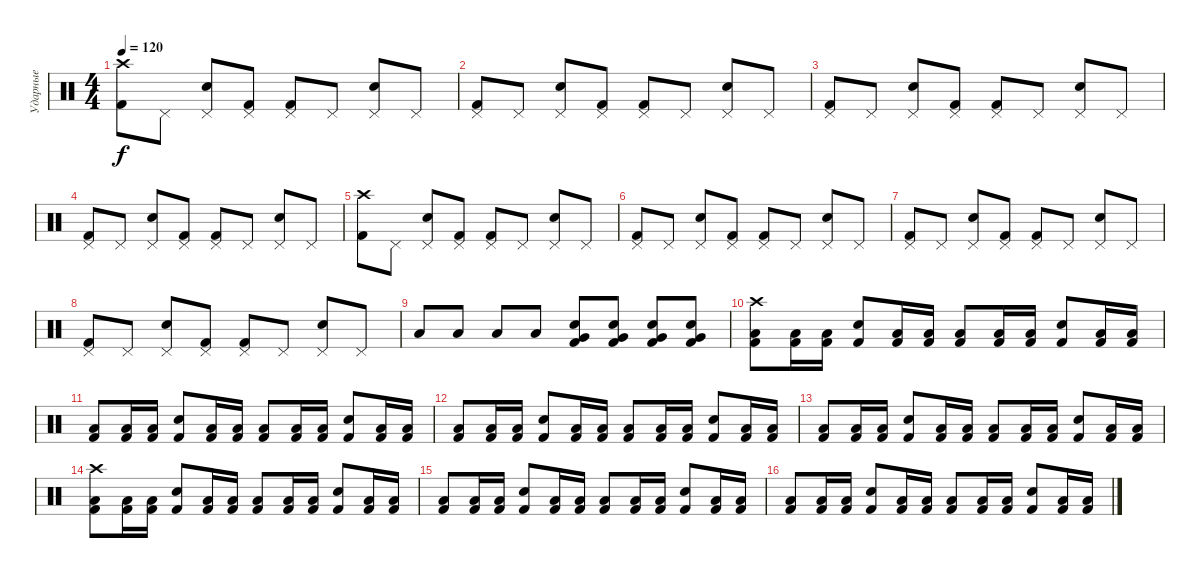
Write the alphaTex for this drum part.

\track ("Ударные" "Ударные") {instrument percussion}
\staff {score}
\articulation defaults
\ts (4 4)
\tempo 120
\clef neutral
\ks c
("Crash high (hit)" "Kick (hit) 2").8{dy f} "Pedal Hi-Hat (hit)".8 ("Pedal Hi-Hat (hit)" "Snare (hit) 2").8 ("Pedal Hi-Hat (hit)" "Kick (hit) 2").8 ("Pedal Hi-Hat (hit)" "Kick (hit) 2").8 "Pedal Hi-Hat (hit)".8 ("Pedal Hi-Hat (hit)" "Snare (hit) 2").8 "Pedal Hi-Hat (hit)".8 |
("Pedal Hi-Hat (hit)" "Kick (hit) 2").8 "Pedal Hi-Hat (hit)".8 ("Pedal Hi-Hat (hit)" "Snare (hit) 2").8 ("Pedal Hi-Hat (hit)" "Kick (hit) 2").8 ("Pedal Hi-Hat (hit)" "Kick (hit) 2").8 "Pedal Hi-Hat (hit)".8 ("Pedal Hi-Hat (hit)" "Snare (hit) 2").8 "Pedal Hi-Hat (hit)".8 |
("Pedal Hi-Hat (hit)" "Kick (hit) 2").8 "Pedal Hi-Hat (hit)".8 ("Pedal Hi-Hat (hit)" "Snare (hit) 2").8 ("Pedal Hi-Hat (hit)" "Kick (hit) 2").8 ("Pedal Hi-Hat (hit)" "Kick (hit) 2").8 "Pedal Hi-Hat (hit)".8 ("Pedal Hi-Hat (hit)" "Snare (hit) 2").8 "Pedal Hi-Hat (hit)".8 |
("Pedal Hi-Hat (hit)" "Kick (hit) 2").8 "Pedal Hi-Hat (hit)".8 ("Pedal Hi-Hat (hit)" "Snare (hit) 2").8 ("Pedal Hi-Hat (hit)" "Kick (hit) 2").8 ("Pedal Hi-Hat (hit)" "Kick (hit) 2").8 "Pedal Hi-Hat (hit)".8 ("Pedal Hi-Hat (hit)" "Snare (hit) 2").8 "Pedal Hi-Hat (hit)".8 |
("Crash high (hit)" "Kick (hit) 2").8 "Pedal Hi-Hat (hit)".8 ("Pedal Hi-Hat (hit)" "Snare (hit) 2").8 ("Pedal Hi-Hat (hit)" "Kick (hit) 2").8 ("Pedal Hi-Hat (hit)" "Kick (hit) 2").8 "Pedal Hi-Hat (hit)".8 ("Pedal Hi-Hat (hit)" "Snare (hit) 2").8 "Pedal Hi-Hat (hit)".8 |
("Pedal Hi-Hat (hit)" "Kick (hit) 2").8 "Pedal Hi-Hat (hit)".8 ("Pedal Hi-Hat (hit)" "Snare (hit) 2").8 ("Pedal Hi-Hat (hit)" "Kick (hit) 2").8 ("Pedal Hi-Hat (hit)" "Kick (hit) 2").8 "Pedal Hi-Hat (hit)".8 ("Pedal Hi-Hat (hit)" "Snare (hit) 2").8 "Pedal Hi-Hat (hit)".8 |
("Pedal Hi-Hat (hit)" "Kick (hit) 2").8 "Pedal Hi-Hat (hit)".8 ("Pedal Hi-Hat (hit)" "Snare (hit) 2").8 ("Pedal Hi-Hat (hit)" "Kick (hit) 2").8 ("Pedal Hi-Hat (hit)" "Kick (hit) 2").8 "Pedal Hi-Hat (hit)".8 ("Pedal Hi-Hat (hit)" "Snare (hit) 2").8 "Pedal Hi-Hat (hit)".8 |
("Pedal Hi-Hat (hit)" "Kick (hit) 2").8 "Pedal Hi-Hat (hit)".8 ("Pedal Hi-Hat (hit)" "Snare (hit) 2").8 ("Pedal Hi-Hat (hit)" "Kick (hit) 2").8 ("Pedal Hi-Hat (hit)" "Kick (hit) 2").8 "Pedal Hi-Hat (hit)".8 ("Pedal Hi-Hat (hit)" "Snare (hit) 2").8 "Pedal Hi-Hat (hit)".8 |
"Low Tom (hit)".8 "Low Tom (hit)".8 "Low Tom (hit)".8 "Low Tom (hit)".8 ("Very Low Tom (hit)" "Kick (hit) 2" "Snare (hit) 2").8 ("Very Low Tom (hit)" "Kick (hit) 2" "Snare (hit) 2").8 ("Very Low Tom (hit)" "Kick (hit) 2" "Snare (hit) 2").8 ("Very Low Tom (hit)" "Kick (hit) 2" "Snare (hit) 2").8 |
("Kick (hit) 2" "Crash high (hit)" "Low Tom (hit)").8 ("Kick (hit) 2" "Low Tom (hit)").16 ("Kick (hit) 2" "Low Tom (hit)").16 ("Kick (hit) 2" "Snare (hit) 2").8 ("Kick (hit) 2" "Low Tom (hit)").16 ("Kick (hit) 2" "Low Tom (hit)").16 ("Kick (hit) 2" "Low Tom (hit)").8 ("Kick (hit) 2" "Low Tom (hit)").16 ("Kick (hit) 2" "Low Tom (hit)").16 ("Kick (hit) 2" "Snare (hit) 2").8 ("Kick (hit) 2" "Low Tom (hit)").16 ("Kick (hit) 2" "Low Tom (hit)").16 |
("Kick (hit) 2" "Low Tom (hit)").8 ("Kick (hit) 2" "Low Tom (hit)").16 ("Kick (hit) 2" "Low Tom (hit)").16 ("Kick (hit) 2" "Snare (hit) 2").8 ("Kick (hit) 2" "Low Tom (hit)").16 ("Kick (hit) 2" "Low Tom (hit)").16 ("Kick (hit) 2" "Low Tom (hit)").8 ("Kick (hit) 2" "Low Tom (hit)").16 ("Kick (hit) 2" "Low Tom (hit)").16 ("Kick (hit) 2" "Snare (hit) 2").8 ("Kick (hit) 2" "Low Tom (hit)").16 ("Kick (hit) 2" "Low Tom (hit)").16 |
("Kick (hit) 2" "Low Tom (hit)").8 ("Kick (hit) 2" "Low Tom (hit)").16 ("Kick (hit) 2" "Low Tom (hit)").16 ("Kick (hit) 2" "Snare (hit) 2").8 ("Kick (hit) 2" "Low Tom (hit)").16 ("Kick (hit) 2" "Low Tom (hit)").16 ("Kick (hit) 2" "Low Tom (hit)").8 ("Kick (hit) 2" "Low Tom (hit)").16 ("Kick (hit) 2" "Low Tom (hit)").16 ("Kick (hit) 2" "Snare (hit) 2").8 ("Kick (hit) 2" "Low Tom (hit)").16 ("Kick (hit) 2" "Low Tom (hit)").16 |
("Kick (hit) 2" "Low Tom (hit)").8 ("Kick (hit) 2" "Low Tom (hit)").16 ("Kick (hit) 2" "Low Tom (hit)").16 ("Kick (hit) 2" "Snare (hit) 2").8 ("Kick (hit) 2" "Low Tom (hit)").16 ("Kick (hit) 2" "Low Tom (hit)").16 ("Kick (hit) 2" "Low Tom (hit)").8 ("Kick (hit) 2" "Low Tom (hit)").16 ("Kick (hit) 2" "Low Tom (hit)").16 ("Kick (hit) 2" "Snare (hit) 2").8 ("Kick (hit) 2" "Low Tom (hit)").16 ("Kick (hit) 2" "Low Tom (hit)").16 |
("Kick (hit) 2" "Crash high (hit)" "Low Tom (hit)").8 ("Kick (hit) 2" "Low Tom (hit)").16 ("Kick (hit) 2" "Low Tom (hit)").16 ("Kick (hit) 2" "Snare (hit) 2").8 ("Kick (hit) 2" "Low Tom (hit)").16 ("Kick (hit) 2" "Low Tom (hit)").16 ("Kick (hit) 2" "Low Tom (hit)").8 ("Kick (hit) 2" "Low Tom (hit)").16 ("Kick (hit) 2" "Low Tom (hit)").16 ("Kick (hit) 2" "Snare (hit) 2").8 ("Kick (hit) 2" "Low Tom (hit)").16 ("Kick (hit) 2" "Low Tom (hit)").16 |
("Kick (hit) 2" "Low Tom (hit)").8 ("Kick (hit) 2" "Low Tom (hit)").16 ("Kick (hit) 2" "Low Tom (hit)").16 ("Kick (hit) 2" "Snare (hit) 2").8 ("Kick (hit) 2" "Low Tom (hit)").16 ("Kick (hit) 2" "Low Tom (hit)").16 ("Kick (hit) 2" "Low Tom (hit)").8 ("Kick (hit) 2" "Low Tom (hit)").16 ("Kick (hit) 2" "Low Tom (hit)").16 ("Kick (hit) 2" "Snare (hit) 2").8 ("Kick (hit) 2" "Low Tom (hit)").16 ("Kick (hit) 2" "Low Tom (hit)").16 |
("Kick (hit) 2" "Low Tom (hit)").8 ("Kick (hit) 2" "Low Tom (hit)").16 ("Kick (hit) 2" "Low Tom (hit)").16 ("Kick (hit) 2" "Snare (hit) 2").8 ("Kick (hit) 2" "Low Tom (hit)").16 ("Kick (hit) 2" "Low Tom (hit)").16 ("Kick (hit) 2" "Low Tom (hit)").8 ("Kick (hit) 2" "Low Tom (hit)").16 ("Kick (hit) 2" "Low Tom (hit)").16 ("Kick (hit) 2" "Snare (hit) 2").8 ("Kick (hit) 2" "Low Tom (hit)").16 ("Kick (hit) 2" "Low Tom (hit)").16
